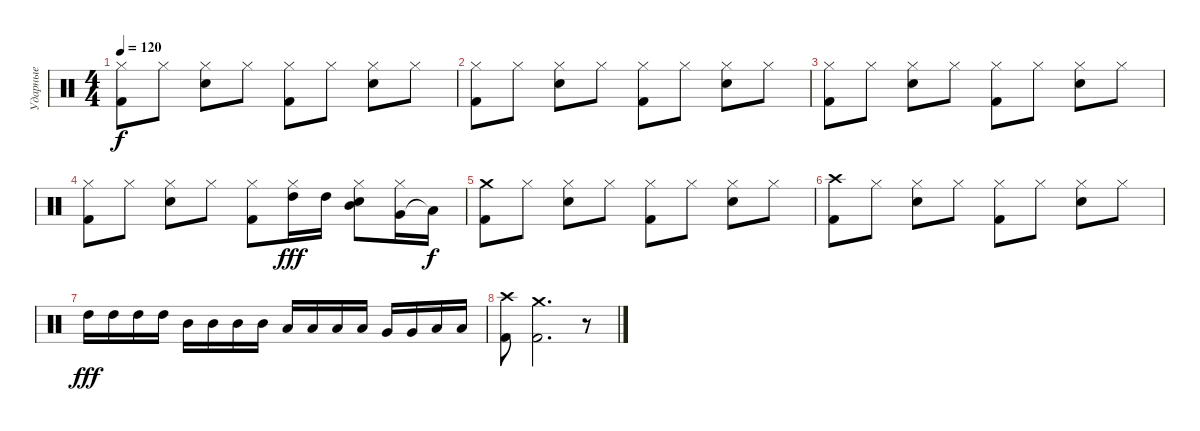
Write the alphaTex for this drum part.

\track ("Ударные" "Ударные") {instrument percussion}
\staff {score}
\articulation defaults
\ts (4 4)
\tempo 120
\clef neutral
\ks c
("Kick (hit) 2" "Hi-Hat (closed)").8{dy f} "Hi-Hat (closed)".8 ("Electric Snare (hit)" "Hi-Hat (closed)").8 "Hi-Hat (closed)".8 ("Kick (hit) 2" "Hi-Hat (closed)").8 "Hi-Hat (closed)".8 ("Electric Snare (hit)" "Hi-Hat (closed)").8 "Hi-Hat (closed)".8 |
("Kick (hit) 2" "Hi-Hat (closed)").8 "Hi-Hat (closed)".8 ("Electric Snare (hit)" "Hi-Hat (closed)").8 "Hi-Hat (closed)".8 ("Kick (hit) 2" "Hi-Hat (closed)").8 "Hi-Hat (closed)".8 ("Electric Snare (hit)" "Hi-Hat (closed)").8 "Hi-Hat (closed)".8 |
("Kick (hit) 2" "Hi-Hat (closed)").8 "Hi-Hat (closed)".8 ("Electric Snare (hit)" "Hi-Hat (closed)").8 "Hi-Hat (closed)".8 ("Kick (hit) 2" "Hi-Hat (closed)").8 "Hi-Hat (closed)".8 ("Electric Snare (hit)" "Hi-Hat (closed)").8 "Hi-Hat (closed)".8 |
("Hi-Hat (closed)" "Kick (hit) 2").8 "Hi-Hat (closed)".8 ("Hi-Hat (closed)" "Electric Snare (hit)").8 "Hi-Hat (closed)".8 ("Hi-Hat (closed)" "Kick (hit) 2").8 ("High Tom (hit)" "Hi-Hat (closed)").16{dy fff} "High Tom (hit)".16 ("Mid Tom (hit)" "Hi-Hat (closed)" "Electric Snare (hit)").8 ("Very Low Tom (hit)" "Hi-Hat (closed)").16 "Low Floor Tom (hit)"{t}.16{dy f} |
("Kick (hit) 2" "Crash medium (hit)").8 "Hi-Hat (closed)".8 ("Electric Snare (hit)" "Hi-Hat (closed)").8 "Hi-Hat (closed)".8 ("Kick (hit) 2" "Hi-Hat (closed)").8 "Hi-Hat (closed)".8 ("Electric Snare (hit)" "Hi-Hat (closed)").8 "Hi-Hat (closed)".8 |
("Kick (hit) 2" "Crash high (hit)").8 "Hi-Hat (closed)".8 ("Electric Snare (hit)" "Hi-Hat (closed)").8 "Hi-Hat (closed)".8 ("Kick (hit) 2" "Hi-Hat (closed)").8 "Hi-Hat (closed)".8 ("Electric Snare (hit)" "Hi-Hat (closed)").8 "Hi-Hat (closed)".8 |
"High Tom (hit)".16{dy fff} "High Tom (hit)".16 "High Tom (hit)".16 "High Tom (hit)".16 "Mid Tom (hit)".16 "Mid Tom (hit)".16 "Mid Tom (hit)".16 "Mid Tom (hit)".16 "Low Tom (hit)".16 "Low Tom (hit)".16 "Low Tom (hit)".16 "Low Tom (hit)".16 "Very Low Tom (hit)".16 "Very Low Tom (hit)".16 "Low Floor Tom (hit)".16 "Low Floor Tom (hit)".16 |
("Kick (hit) 2" "Crash high (hit)").8 ("Kick (hit) 2" "Crash medium (hit)").2{d} r.8
